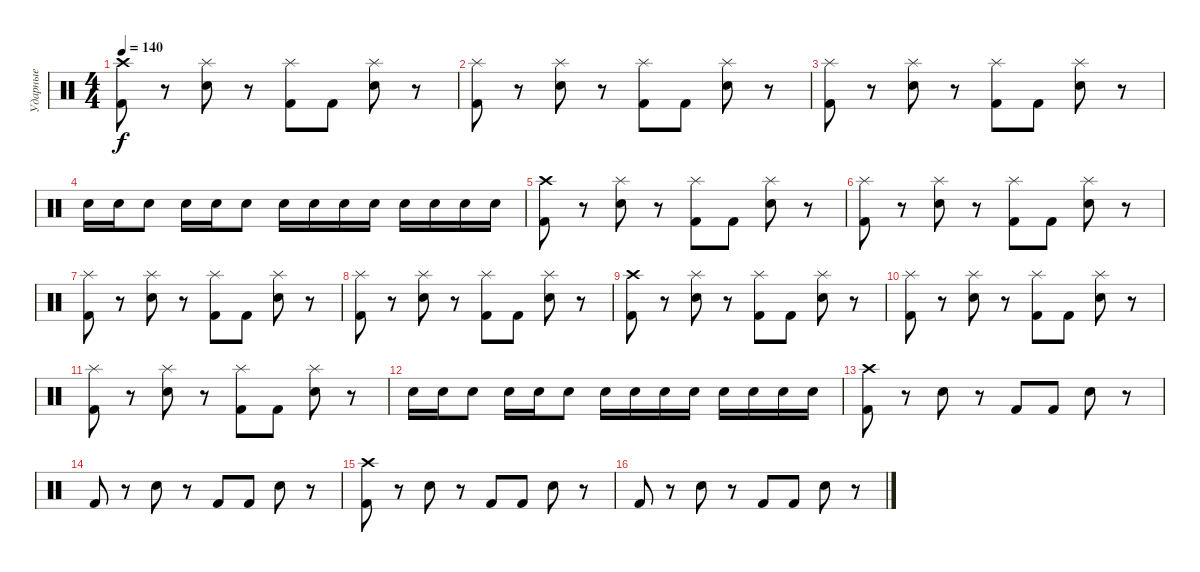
\track ("Ударные" "Ударные") {instrument percussion}
\staff {score}
\articulation defaults
\ts (4 4)
\tempo 140
\clef neutral
\ks c
("Crash high (hit)" "Kick (hit) 2").8{dy f} r.8 ("Splash (hit)" "Electric Snare (hit)").8 r.8 ("Splash (hit)" "Kick (hit) 2").8 "Kick (hit) 2".8 ("Splash (hit)" "Electric Snare (hit)").8 r.8 |
("Splash (hit)" "Kick (hit) 2").8 r.8 ("Splash (hit)" "Electric Snare (hit)").8 r.8 ("Splash (hit)" "Kick (hit) 2").8 "Kick (hit) 2".8 ("Splash (hit)" "Electric Snare (hit)").8 r.8 |
("Splash (hit)" "Kick (hit) 2").8 r.8 ("Splash (hit)" "Electric Snare (hit)").8 r.8 ("Splash (hit)" "Kick (hit) 2").8 "Kick (hit) 2".8 ("Splash (hit)" "Electric Snare (hit)").8 r.8 |
"Electric Snare (hit)".16 "Electric Snare (hit)".16 "Electric Snare (hit)".8 "Electric Snare (hit)".16 "Electric Snare (hit)".16 "Electric Snare (hit)".8 "Electric Snare (hit)".16 "Electric Snare (hit)".16 "Electric Snare (hit)".16 "Electric Snare (hit)".16 "Electric Snare (hit)".16 "Electric Snare (hit)".16 "Electric Snare (hit)".16 "Electric Snare (hit)".16 |
("Crash high (hit)" "Kick (hit) 2").8 r.8 ("Splash (hit)" "Electric Snare (hit)").8 r.8 ("Splash (hit)" "Kick (hit) 2").8 "Kick (hit) 2".8 ("Splash (hit)" "Electric Snare (hit)").8 r.8 |
("Splash (hit)" "Kick (hit) 2").8 r.8 ("Splash (hit)" "Electric Snare (hit)").8 r.8 ("Splash (hit)" "Kick (hit) 2").8 "Kick (hit) 2".8 ("Splash (hit)" "Electric Snare (hit)").8 r.8 |
("Splash (hit)" "Kick (hit) 2").8 r.8 ("Splash (hit)" "Electric Snare (hit)").8 r.8 ("Splash (hit)" "Kick (hit) 2").8 "Kick (hit) 2".8 ("Splash (hit)" "Electric Snare (hit)").8 r.8 |
("Splash (hit)" "Kick (hit) 2").8 r.8 ("Splash (hit)" "Electric Snare (hit)").8 r.8 ("Splash (hit)" "Kick (hit) 2").8 "Kick (hit) 2".8 ("Splash (hit)" "Electric Snare (hit)").8 r.8 |
("Crash high (hit)" "Kick (hit) 2").8 r.8 ("Splash (hit)" "Electric Snare (hit)").8 r.8 ("Splash (hit)" "Kick (hit) 2").8 "Kick (hit) 2".8 ("Splash (hit)" "Electric Snare (hit)").8 r.8 |
("Splash (hit)" "Kick (hit) 2").8 r.8 ("Splash (hit)" "Electric Snare (hit)").8 r.8 ("Splash (hit)" "Kick (hit) 2").8 "Kick (hit) 2".8 ("Splash (hit)" "Electric Snare (hit)").8 r.8 |
("Splash (hit)" "Kick (hit) 2").8 r.8 ("Splash (hit)" "Electric Snare (hit)").8 r.8 ("Splash (hit)" "Kick (hit) 2").8 "Kick (hit) 2".8 ("Splash (hit)" "Electric Snare (hit)").8 r.8 |
"Electric Snare (hit)".16 "Electric Snare (hit)".16 "Electric Snare (hit)".8 "Electric Snare (hit)".16 "Electric Snare (hit)".16 "Electric Snare (hit)".8 "Electric Snare (hit)".16 "Electric Snare (hit)".16 "Electric Snare (hit)".16 "Electric Snare (hit)".16 "Electric Snare (hit)".16 "Electric Snare (hit)".16 "Electric Snare (hit)".16 "Electric Snare (hit)".16 |
("Crash high (hit)" "Kick (hit) 2").8 r.8 "Electric Snare (hit)".8 r.8 "Kick (hit) 2".8 "Kick (hit) 2".8 "Electric Snare (hit)".8 r.8 |
"Kick (hit) 2".8 r.8 "Electric Snare (hit)".8 r.8 "Kick (hit) 2".8 "Kick (hit) 2".8 "Electric Snare (hit)".8 r.8 |
("Crash high (hit)" "Kick (hit) 2").8 r.8 "Electric Snare (hit)".8 r.8 "Kick (hit) 2".8 "Kick (hit) 2".8 "Electric Snare (hit)".8 r.8 |
"Kick (hit) 2".8 r.8 "Electric Snare (hit)".8 r.8 "Kick (hit) 2".8 "Kick (hit) 2".8 "Electric Snare (hit)".8 r.8
